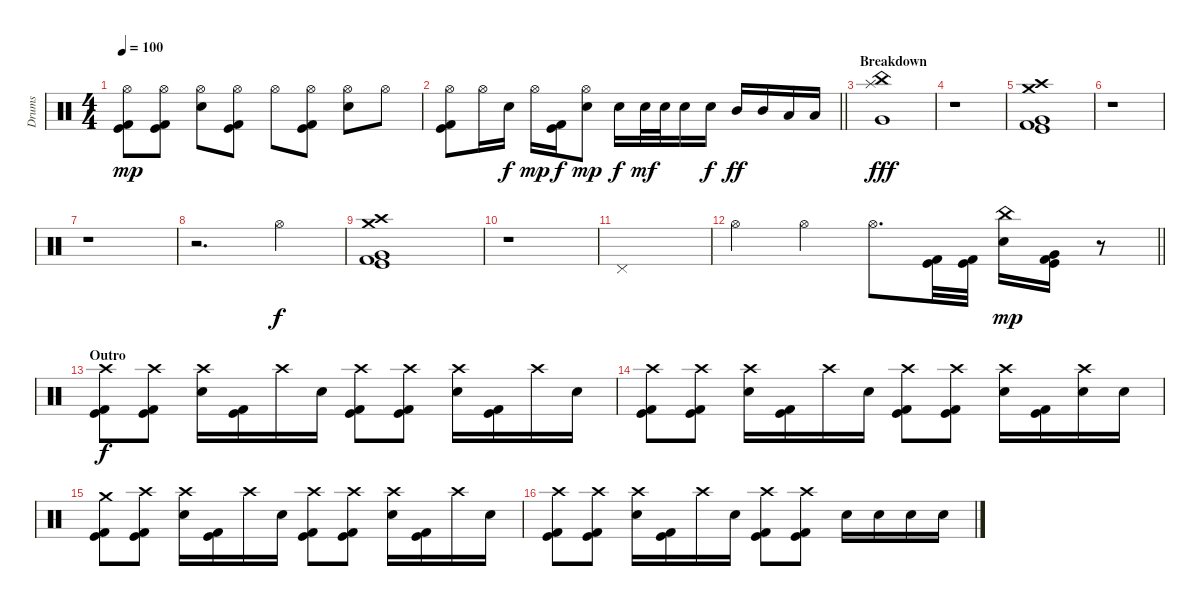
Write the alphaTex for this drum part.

\track ("Drums" "Drums") {instrument percussion}
\staff {score}
\articulation defaults
\ts (4 4)
\tempo 100
\clef neutral
\ks c
("Hi-Hat (open)" "Kick (hit)" "Kick (hit) 2").8{dy mp} ("Hi-Hat (open)" "Kick (hit)" "Kick (hit) 2").8 ("Hi-Hat (open)" "Snare (hit) 2").8 ("Hi-Hat (open)" "Kick (hit)" "Kick (hit) 2").8 "Hi-Hat (open)".8 ("Hi-Hat (open)" "Kick (hit)" "Kick (hit) 2").8 ("Hi-Hat (open)" "Snare (hit) 2").8 "Hi-Hat (open)".8 |
\barLineRight lightlight
("Hi-Hat (open)" "Kick (hit)" "Kick (hit) 2").8 "Hi-Hat (open)".16 "Snare (hit) 2".16{dy f} "Hi-Hat (open)".16{dy mp} ("Kick (hit)" "Kick (hit) 2").16{dy f} ("Hi-Hat (open)" "Snare (hit) 2").8{dy mp} "Snare (hit) 2".16{dy f} "Snare (hit) 2".32{dy mf} "Snare (hit) 2".32 "Snare (hit) 2".16 "Snare (hit) 2".16{dy f} "Mid Tom (hit)".16{dy ff} "Mid Tom (hit)".16 "Low Tom (hit)".16 "Low Tom (hit)".16 |
\section ("" "Breakdown")
("Splash (hit)" "China (hit)" "Very Low Tom (hit)").1{dy fff} |
r.1 |
("Crash high (hit)" "Crash medium (hit)" "Very Low Tom (hit)" "Kick (hit)" "Kick (hit) 2").1 |
r.1 |
r.1 |
r.2{d} "Hi-Hat (open)".4{dy f} |
("Crash high (hit)" "Crash medium (hit)" "Very Low Tom (hit)" "Kick (hit)" "Kick (hit) 2").1 |
r.1 |
"Pedal Hi-Hat (hit)".1 |
\barLineRight lightlight "Hi-Hat (open)".4 "Hi-Hat (open)".4 "Hi-Hat (open)".8{d}
("Kick (hit)" "Kick (hit) 2").32 ("Kick (hit)" "Kick (hit) 2").32 ("China (hit)" "Snare (hit) 2").16{dy mp} ("Very Low Tom (hit)" "Kick (hit)" "Kick (hit) 2").16 r.8 |
\section ("" "Outro")
("Crash high (hit)" "Kick (hit)" "Kick (hit) 2").8{dy f} ("Crash high (hit)" "Kick (hit)" "Kick (hit) 2").8 ("Crash high (hit)" "Snare (hit) 2").16 ("Kick (hit)" "Kick (hit) 2").16 "Crash high (hit)".16 "Snare (hit) 2".16 ("Crash high (hit)" "Kick (hit)" "Kick (hit) 2").8 ("Crash high (hit)" "Kick (hit)" "Kick (hit) 2").8 ("Crash high (hit)" "Snare (hit) 2").16 ("Kick (hit)" "Kick (hit) 2").16 "Crash high (hit)".16 "Snare (hit) 2".16 |
("Crash high (hit)" "Kick (hit)" "Kick (hit) 2").8 ("Crash high (hit)" "Kick (hit)" "Kick (hit) 2").8 ("Crash high (hit)" "Snare (hit) 2").16 ("Kick (hit)" "Kick (hit) 2").16 "Crash high (hit)".16 "Snare (hit) 2".16 ("Crash high (hit)" "Kick (hit)" "Kick (hit) 2").8 ("Crash high (hit)" "Kick (hit)" "Kick (hit) 2").8 ("Crash high (hit)" "Snare (hit) 2").16 ("Kick (hit)" "Kick (hit) 2").16 ("Crash high (hit)" "Snare (hit) 2").16 "Snare (hit) 2".16 |
("Crash medium (hit)" "Kick (hit)" "Kick (hit) 2").8 ("Crash high (hit)" "Kick (hit)" "Kick (hit) 2").8 ("Crash high (hit)" "Snare (hit) 2").16 ("Kick (hit)" "Kick (hit) 2").16 "Crash high (hit)".16 "Snare (hit) 2".16 ("Crash high (hit)" "Kick (hit)" "Kick (hit) 2").8 ("Crash high (hit)" "Kick (hit)" "Kick (hit) 2").8 ("Crash high (hit)" "Snare (hit) 2").16 ("Kick (hit)" "Kick (hit) 2").16 "Crash high (hit)".16 "Snare (hit) 2".16 |
("Crash high (hit)" "Kick (hit)" "Kick (hit) 2").8 ("Crash high (hit)" "Kick (hit)" "Kick (hit) 2").8 ("Crash high (hit)" "Snare (hit) 2").16 ("Kick (hit)" "Kick (hit) 2").16 "Crash high (hit)".16 "Snare (hit) 2".16 ("Crash high (hit)" "Kick (hit)" "Kick (hit) 2").8 ("Crash high (hit)" "Kick (hit)" "Kick (hit) 2").8 "Snare (hit) 2".16 "Snare (hit) 2".16 "Snare (hit) 2".16 "Snare (hit) 2".16
